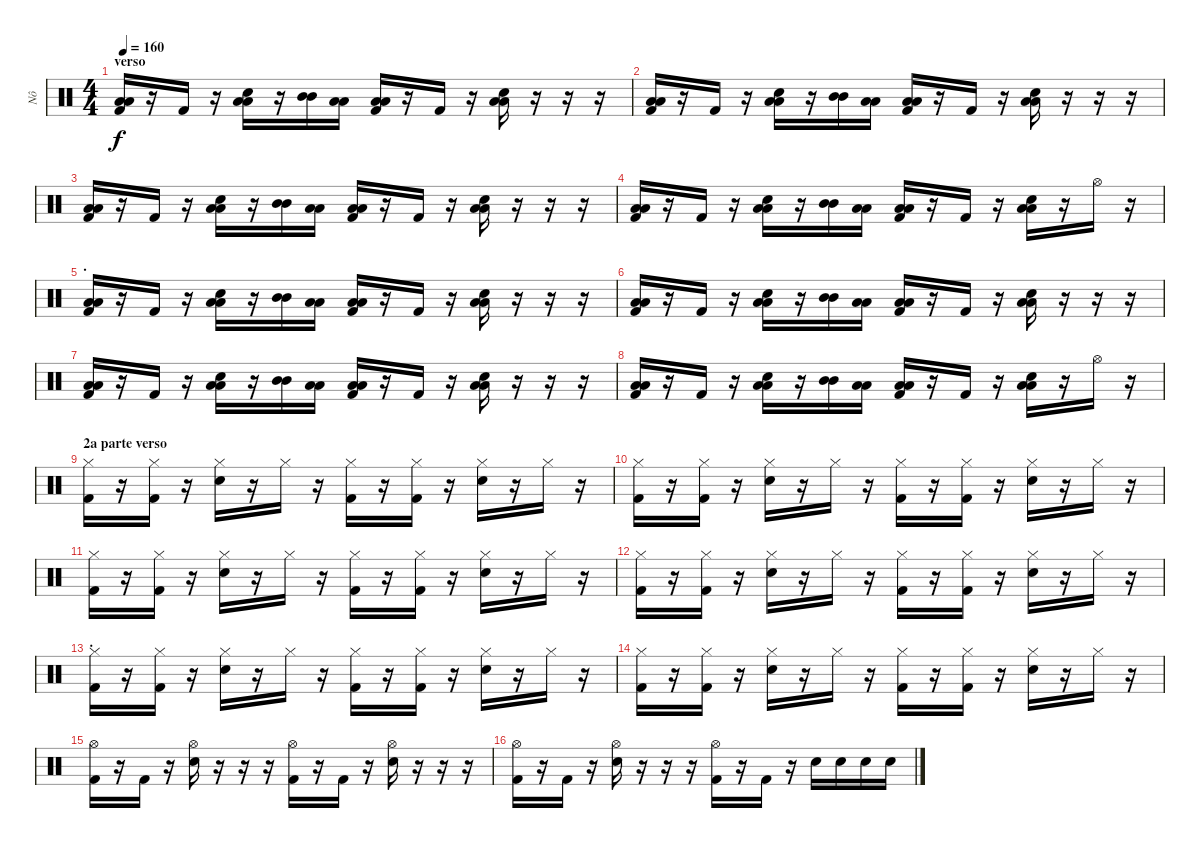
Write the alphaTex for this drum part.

\track ("Nô" "Nô") {instrument percussion}
\staff {score}
\articulation defaults
\ts (4 4)
\section ("" "verso")
\tempo 160
\clef neutral
\ks c
("Low Tom (hit)" "Low Tom (hit)" "Kick (hit) 2").16{dy f} r.16 "Kick (hit) 2".16 r.16 ("Low Tom (hit)" "Low Tom (hit)" "Electric Snare (hit)").16 r.16 ("Mid Tom (hit)" "Mid Tom (hit)").16 ("Low Tom (hit)" "Low Tom (hit)").16 ("Low Tom (hit)" "Low Tom (hit)" "Kick (hit) 2").16 r.16 "Kick (hit) 2".16 r.16 ("Low Tom (hit)" "Low Tom (hit)" "Electric Snare (hit)").16 r.16 r.16 r.16 |
("Low Tom (hit)" "Low Tom (hit)" "Kick (hit) 2").16 r.16 "Kick (hit) 2".16 r.16 ("Low Tom (hit)" "Low Tom (hit)" "Electric Snare (hit)").16 r.16 ("Mid Tom (hit)" "Mid Tom (hit)").16 ("Low Tom (hit)" "Low Tom (hit)").16 ("Low Tom (hit)" "Low Tom (hit)" "Kick (hit) 2").16 r.16 "Kick (hit) 2".16 r.16 ("Low Tom (hit)" "Low Tom (hit)" "Electric Snare (hit)").16 r.16 r.16 r.16 |
("Low Tom (hit)" "Low Tom (hit)" "Kick (hit) 2").16 r.16 "Kick (hit) 2".16 r.16 ("Low Tom (hit)" "Low Tom (hit)" "Electric Snare (hit)").16 r.16 ("Mid Tom (hit)" "Mid Tom (hit)").16 ("Low Tom (hit)" "Low Tom (hit)").16 ("Low Tom (hit)" "Low Tom (hit)" "Kick (hit) 2").16 r.16 "Kick (hit) 2".16 r.16 ("Low Tom (hit)" "Low Tom (hit)" "Electric Snare (hit)").16 r.16 r.16 r.16 |
("Low Tom (hit)" "Low Tom (hit)" "Kick (hit) 2").16 r.16 "Kick (hit) 2".16 r.16 ("Low Tom (hit)" "Low Tom (hit)" "Electric Snare (hit)").16 r.16 ("Mid Tom (hit)" "Mid Tom (hit)").16 ("Low Tom (hit)" "Low Tom (hit)").16 ("Low Tom (hit)" "Low Tom (hit)" "Kick (hit) 2").16 r.16 "Kick (hit) 2".16 r.16 ("Low Tom (hit)" "Low Tom (hit)" "Electric Snare (hit)").16 r.16 "Hi-Hat (open)".16 r.16 |
\section ("" ".")
("Low Tom (hit)" "Low Tom (hit)" "Kick (hit) 2").16 r.16 "Kick (hit) 2".16 r.16 ("Low Tom (hit)" "Low Tom (hit)" "Electric Snare (hit)").16 r.16 ("Mid Tom (hit)" "Mid Tom (hit)").16 ("Low Tom (hit)" "Low Tom (hit)").16 ("Low Tom (hit)" "Low Tom (hit)" "Kick (hit) 2").16 r.16 "Kick (hit) 2".16 r.16 ("Low Tom (hit)" "Low Tom (hit)" "Electric Snare (hit)").16 r.16 r.16 r.16 |
("Low Tom (hit)" "Low Tom (hit)" "Kick (hit) 2").16 r.16 "Kick (hit) 2".16 r.16 ("Low Tom (hit)" "Low Tom (hit)" "Electric Snare (hit)").16 r.16 ("Mid Tom (hit)" "Mid Tom (hit)").16 ("Low Tom (hit)" "Low Tom (hit)").16 ("Low Tom (hit)" "Low Tom (hit)" "Kick (hit) 2").16 r.16 "Kick (hit) 2".16 r.16 ("Low Tom (hit)" "Low Tom (hit)" "Electric Snare (hit)").16 r.16 r.16 r.16 |
("Low Tom (hit)" "Low Tom (hit)" "Kick (hit) 2").16 r.16 "Kick (hit) 2".16 r.16 ("Low Tom (hit)" "Low Tom (hit)" "Electric Snare (hit)").16 r.16 ("Mid Tom (hit)" "Mid Tom (hit)").16 ("Low Tom (hit)" "Low Tom (hit)").16 ("Low Tom (hit)" "Low Tom (hit)" "Kick (hit) 2").16 r.16 "Kick (hit) 2".16 r.16 ("Low Tom (hit)" "Low Tom (hit)" "Electric Snare (hit)").16 r.16 r.16 r.16 |
("Low Tom (hit)" "Low Tom (hit)" "Kick (hit) 2").16 r.16 "Kick (hit) 2".16 r.16 ("Low Tom (hit)" "Low Tom (hit)" "Electric Snare (hit)").16 r.16 ("Mid Tom (hit)" "Mid Tom (hit)").16 ("Low Tom (hit)" "Low Tom (hit)").16 ("Low Tom (hit)" "Low Tom (hit)" "Kick (hit) 2").16 r.16 "Kick (hit) 2".16 r.16 ("Low Tom (hit)" "Low Tom (hit)" "Electric Snare (hit)").16 r.16 "Hi-Hat (open)".16 r.16 |
\section ("" "2a parte verso")
("Hi-Hat (closed)" "Kick (hit) 2").16 r.16 ("Hi-Hat (closed)" "Kick (hit) 2").16 r.16 ("Hi-Hat (closed)" "Electric Snare (hit)").16 r.16 "Hi-Hat (closed)".16 r.16 ("Hi-Hat (closed)" "Kick (hit) 2").16 r.16 ("Hi-Hat (closed)" "Kick (hit) 2").16 r.16 ("Hi-Hat (closed)" "Electric Snare (hit)").16 r.16 "Hi-Hat (closed)".16 r.16 |
("Hi-Hat (closed)" "Kick (hit) 2").16 r.16 ("Hi-Hat (closed)" "Kick (hit) 2").16 r.16 ("Hi-Hat (closed)" "Electric Snare (hit)").16 r.16 "Hi-Hat (closed)".16 r.16 ("Hi-Hat (closed)" "Kick (hit) 2").16 r.16 ("Hi-Hat (closed)" "Kick (hit) 2").16 r.16 ("Hi-Hat (closed)" "Electric Snare (hit)").16 r.16 "Hi-Hat (closed)".16 r.16 |
("Hi-Hat (closed)" "Kick (hit) 2").16 r.16 ("Hi-Hat (closed)" "Kick (hit) 2").16 r.16 ("Hi-Hat (closed)" "Electric Snare (hit)").16 r.16 "Hi-Hat (closed)".16 r.16 ("Hi-Hat (closed)" "Kick (hit) 2").16 r.16 ("Hi-Hat (closed)" "Kick (hit) 2").16 r.16 ("Hi-Hat (closed)" "Electric Snare (hit)").16 r.16 "Hi-Hat (closed)".16 r.16 |
("Hi-Hat (closed)" "Kick (hit) 2").16 r.16 ("Hi-Hat (closed)" "Kick (hit) 2").16 r.16 ("Hi-Hat (closed)" "Electric Snare (hit)").16 r.16 "Hi-Hat (closed)".16 r.16 ("Hi-Hat (closed)" "Kick (hit) 2").16 r.16 ("Hi-Hat (closed)" "Kick (hit) 2").16 r.16 ("Hi-Hat (closed)" "Electric Snare (hit)").16 r.16 "Hi-Hat (closed)".16 r.16 |
\section ("" ".")
("Hi-Hat (closed)" "Kick (hit) 2").16 r.16 ("Hi-Hat (closed)" "Kick (hit) 2").16 r.16 ("Hi-Hat (closed)" "Electric Snare (hit)").16 r.16 "Hi-Hat (closed)".16 r.16 ("Hi-Hat (closed)" "Kick (hit) 2").16 r.16 ("Hi-Hat (closed)" "Kick (hit) 2").16 r.16 ("Hi-Hat (closed)" "Electric Snare (hit)").16 r.16 "Hi-Hat (closed)".16 r.16 |
("Hi-Hat (closed)" "Kick (hit) 2").16 r.16 ("Hi-Hat (closed)" "Kick (hit) 2").16 r.16 ("Hi-Hat (closed)" "Electric Snare (hit)").16 r.16 "Hi-Hat (closed)".16 r.16 ("Hi-Hat (closed)" "Kick (hit) 2").16 r.16 ("Hi-Hat (closed)" "Kick (hit) 2").16 r.16 ("Hi-Hat (closed)" "Electric Snare (hit)").16 r.16 "Hi-Hat (closed)".16 r.16 |
("Hi-Hat (open)" "Kick (hit) 2").16 r.16 "Kick (hit) 2".16 r.16 ("Hi-Hat (open)" "Electric Snare (hit)").16 r.16 r.16 r.16 ("Hi-Hat (open)" "Kick (hit) 2").16 r.16 "Kick (hit) 2".16 r.16 ("Hi-Hat (open)" "Electric Snare (hit)").16 r.16 r.16 r.16 |
("Hi-Hat (open)" "Kick (hit) 2").16 r.16 "Kick (hit) 2".16 r.16 ("Hi-Hat (open)" "Electric Snare (hit)").16 r.16 r.16 r.16 ("Hi-Hat (open)" "Kick (hit) 2").16 r.16 "Kick (hit) 2".16 r.16 "Electric Snare (hit)".16 "Electric Snare (hit)".16 "Electric Snare (hit)".16 "Electric Snare (hit)".16
